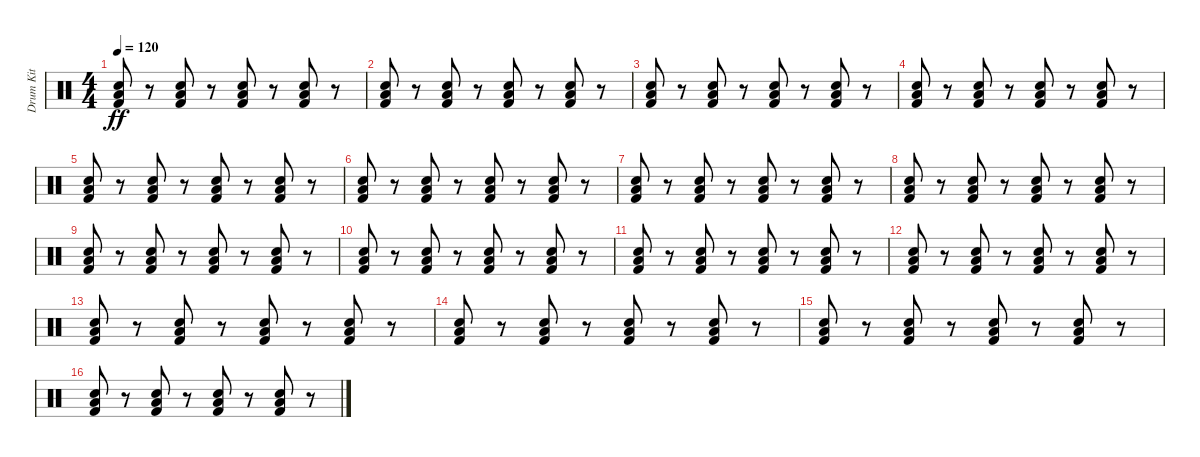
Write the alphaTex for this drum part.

\track ("Drum Kit" "Drum Kit") {instrument percussion}
\staff {score}
\articulation defaults
\ts (4 4)
\tempo 120
\clef neutral
\ks c
("Low Floor Tom (hit)" "Snare (hit) 2" "Kick (hit) 2").8{dy ff} r.8 ("Low Floor Tom (hit)" "Snare (hit) 2" "Kick (hit) 2").8 r.8 ("Low Floor Tom (hit)" "Snare (hit) 2" "Kick (hit) 2").8 r.8 ("Low Floor Tom (hit)" "Snare (hit) 2" "Kick (hit) 2").8 r.8 |
("Low Floor Tom (hit)" "Snare (hit) 2" "Kick (hit) 2").8 r.8 ("Low Floor Tom (hit)" "Snare (hit) 2" "Kick (hit) 2").8 r.8 ("Low Floor Tom (hit)" "Snare (hit) 2" "Kick (hit) 2").8 r.8 ("Low Floor Tom (hit)" "Snare (hit) 2" "Kick (hit) 2").8 r.8 |
("Low Floor Tom (hit)" "Snare (hit) 2" "Kick (hit) 2").8 r.8 ("Low Floor Tom (hit)" "Snare (hit) 2" "Kick (hit) 2").8 r.8 ("Low Floor Tom (hit)" "Snare (hit) 2" "Kick (hit) 2").8 r.8 ("Low Floor Tom (hit)" "Snare (hit) 2" "Kick (hit) 2").8 r.8 |
("Low Floor Tom (hit)" "Snare (hit) 2" "Kick (hit) 2").8 r.8 ("Low Floor Tom (hit)" "Snare (hit) 2" "Kick (hit) 2").8 r.8 ("Low Floor Tom (hit)" "Snare (hit) 2" "Kick (hit) 2").8 r.8 ("Low Floor Tom (hit)" "Snare (hit) 2" "Kick (hit) 2").8 r.8 |
("Low Floor Tom (hit)" "Snare (hit) 2" "Kick (hit) 2").8 r.8 ("Low Floor Tom (hit)" "Snare (hit) 2" "Kick (hit) 2").8 r.8 ("Low Floor Tom (hit)" "Snare (hit) 2" "Kick (hit) 2").8 r.8 ("Low Floor Tom (hit)" "Snare (hit) 2" "Kick (hit) 2").8 r.8 |
("Low Floor Tom (hit)" "Snare (hit) 2" "Kick (hit) 2").8 r.8 ("Low Floor Tom (hit)" "Snare (hit) 2" "Kick (hit) 2").8 r.8 ("Low Floor Tom (hit)" "Snare (hit) 2" "Kick (hit) 2").8 r.8 ("Low Floor Tom (hit)" "Snare (hit) 2" "Kick (hit) 2").8 r.8 |
("Low Floor Tom (hit)" "Snare (hit) 2" "Kick (hit) 2").8 r.8 ("Low Floor Tom (hit)" "Snare (hit) 2" "Kick (hit) 2").8 r.8 ("Low Floor Tom (hit)" "Snare (hit) 2" "Kick (hit) 2").8 r.8 ("Low Floor Tom (hit)" "Snare (hit) 2" "Kick (hit) 2").8 r.8 |
("Low Floor Tom (hit)" "Snare (hit) 2" "Kick (hit) 2").8 r.8 ("Low Floor Tom (hit)" "Snare (hit) 2" "Kick (hit) 2").8 r.8 ("Low Floor Tom (hit)" "Snare (hit) 2" "Kick (hit) 2").8 r.8 ("Low Floor Tom (hit)" "Snare (hit) 2" "Kick (hit) 2").8 r.8 |
("Low Floor Tom (hit)" "Snare (hit) 2" "Kick (hit) 2").8 r.8 ("Low Floor Tom (hit)" "Snare (hit) 2" "Kick (hit) 2").8 r.8 ("Low Floor Tom (hit)" "Snare (hit) 2" "Kick (hit) 2").8 r.8 ("Low Floor Tom (hit)" "Snare (hit) 2" "Kick (hit) 2").8 r.8 |
("Low Floor Tom (hit)" "Snare (hit) 2" "Kick (hit) 2").8 r.8 ("Low Floor Tom (hit)" "Snare (hit) 2" "Kick (hit) 2").8 r.8 ("Low Floor Tom (hit)" "Snare (hit) 2" "Kick (hit) 2").8 r.8 ("Low Floor Tom (hit)" "Snare (hit) 2" "Kick (hit) 2").8 r.8 |
("Low Floor Tom (hit)" "Snare (hit) 2" "Kick (hit) 2").8 r.8 ("Low Floor Tom (hit)" "Snare (hit) 2" "Kick (hit) 2").8 r.8 ("Low Floor Tom (hit)" "Snare (hit) 2" "Kick (hit) 2").8 r.8 ("Low Floor Tom (hit)" "Snare (hit) 2" "Kick (hit) 2").8 r.8 |
("Low Floor Tom (hit)" "Snare (hit) 2" "Kick (hit) 2").8 r.8 ("Low Floor Tom (hit)" "Snare (hit) 2" "Kick (hit) 2").8 r.8 ("Low Floor Tom (hit)" "Snare (hit) 2" "Kick (hit) 2").8 r.8 ("Low Floor Tom (hit)" "Snare (hit) 2" "Kick (hit) 2").8 r.8 |
("Low Floor Tom (hit)" "Snare (hit) 2" "Kick (hit) 2").8 r.8 ("Low Floor Tom (hit)" "Snare (hit) 2" "Kick (hit) 2").8 r.8 ("Low Floor Tom (hit)" "Snare (hit) 2" "Kick (hit) 2").8 r.8 ("Low Floor Tom (hit)" "Snare (hit) 2" "Kick (hit) 2").8 r.8 |
("Low Floor Tom (hit)" "Snare (hit) 2" "Kick (hit) 2").8 r.8 ("Low Floor Tom (hit)" "Snare (hit) 2" "Kick (hit) 2").8 r.8 ("Low Floor Tom (hit)" "Snare (hit) 2" "Kick (hit) 2").8 r.8 ("Low Floor Tom (hit)" "Snare (hit) 2" "Kick (hit) 2").8 r.8 |
("Low Floor Tom (hit)" "Snare (hit) 2" "Kick (hit) 2").8 r.8 ("Low Floor Tom (hit)" "Snare (hit) 2" "Kick (hit) 2").8 r.8 ("Low Floor Tom (hit)" "Snare (hit) 2" "Kick (hit) 2").8 r.8 ("Low Floor Tom (hit)" "Snare (hit) 2" "Kick (hit) 2").8 r.8 |
("Low Floor Tom (hit)" "Snare (hit) 2" "Kick (hit) 2").8 r.8 ("Low Floor Tom (hit)" "Snare (hit) 2" "Kick (hit) 2").8 r.8 ("Low Floor Tom (hit)" "Snare (hit) 2" "Kick (hit) 2").8 r.8 ("Low Floor Tom (hit)" "Snare (hit) 2" "Kick (hit) 2").8 r.8
